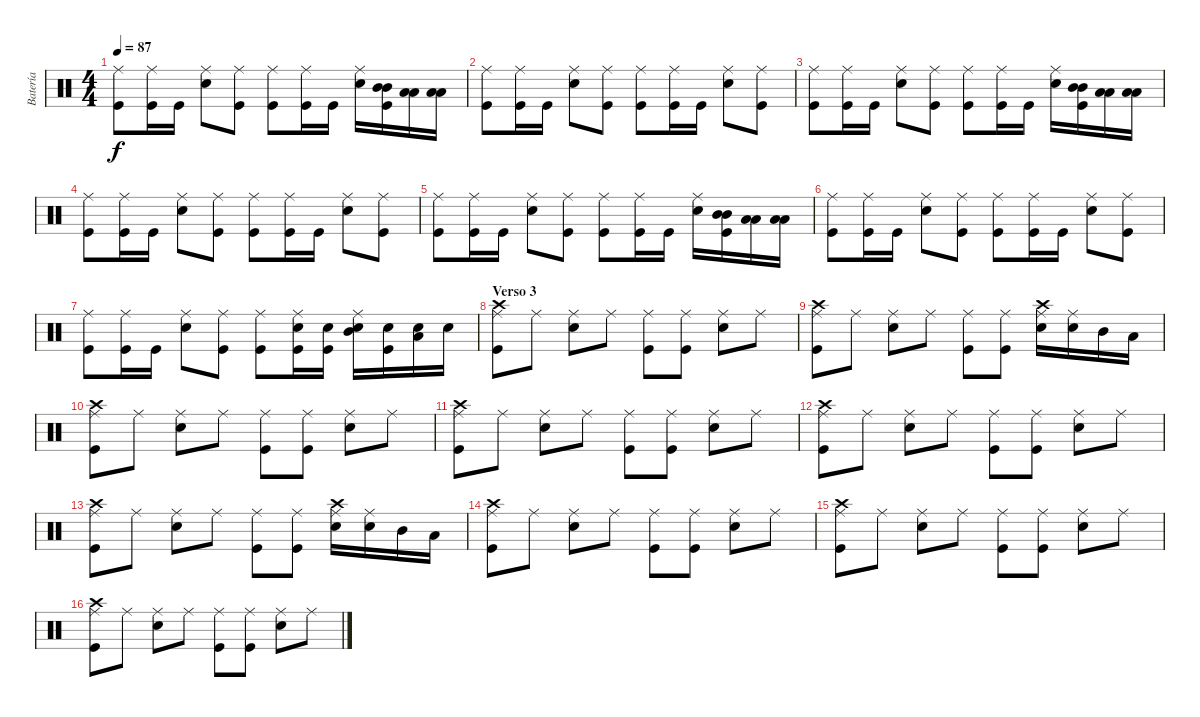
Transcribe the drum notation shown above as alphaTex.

\track ("Batería" "Batería") {instrument percussion}
\staff {score}
\articulation defaults
\ts (4 4)
\tempo 87
\clef neutral
\ks c
("Ride (middle)" "Kick (hit)").8{dy f} ("Ride (middle)" "Kick (hit)").16 "Kick (hit)".16 ("Ride (middle)" "Snare (hit) 2").8 ("Ride (middle)" "Kick (hit)").8 ("Ride (middle)" "Kick (hit)").8 ("Ride (middle)" "Kick (hit)").16 "Kick (hit)".16 ("Ride (middle)" "Snare (hit) 2").16 ("Mid Tom (hit)" "Mid Tom (hit)" "Kick (hit)").16 ("Low Tom (hit)" "Low Tom (hit)").16 ("Low Floor Tom (hit)" "Low Floor Tom (hit)").16 |
("Ride (middle)" "Kick (hit)").8 ("Ride (middle)" "Kick (hit)").16 "Kick (hit)".16 ("Ride (middle)" "Snare (hit) 2").8 ("Ride (middle)" "Kick (hit)").8 ("Ride (middle)" "Kick (hit)").8 ("Ride (middle)" "Kick (hit)").16 "Kick (hit)".16 ("Ride (middle)" "Snare (hit) 2").8 ("Ride (middle)" "Kick (hit)").8 |
("Ride (middle)" "Kick (hit)").8 ("Ride (middle)" "Kick (hit)").16 "Kick (hit)".16 ("Ride (middle)" "Snare (hit) 2").8 ("Ride (middle)" "Kick (hit)").8 ("Ride (middle)" "Kick (hit)").8 ("Ride (middle)" "Kick (hit)").16 "Kick (hit)".16 ("Ride (middle)" "Snare (hit) 2").16 ("Mid Tom (hit)" "Mid Tom (hit)" "Kick (hit)").16 ("Low Tom (hit)" "Low Tom (hit)").16 ("Low Floor Tom (hit)" "Low Floor Tom (hit)").16 |
("Ride (middle)" "Kick (hit)").8 ("Ride (middle)" "Kick (hit)").16 "Kick (hit)".16 ("Ride (middle)" "Snare (hit) 2").8 ("Ride (middle)" "Kick (hit)").8 ("Ride (middle)" "Kick (hit)").8 ("Ride (middle)" "Kick (hit)").16 "Kick (hit)".16 ("Ride (middle)" "Snare (hit) 2").8 ("Ride (middle)" "Kick (hit)").8 |
("Ride (middle)" "Kick (hit)").8 ("Ride (middle)" "Kick (hit)").16 "Kick (hit)".16 ("Ride (middle)" "Snare (hit) 2").8 ("Ride (middle)" "Kick (hit)").8 ("Ride (middle)" "Kick (hit)").8 ("Ride (middle)" "Kick (hit)").16 "Kick (hit)".16 ("Ride (middle)" "Snare (hit) 2").16 ("Mid Tom (hit)" "Mid Tom (hit)" "Kick (hit)").16 ("Low Tom (hit)" "Low Tom (hit)").16 ("Low Floor Tom (hit)" "Low Floor Tom (hit)").16 |
("Ride (middle)" "Kick (hit)").8 ("Ride (middle)" "Kick (hit)").16 "Kick (hit)".16 ("Ride (middle)" "Snare (hit) 2").8 ("Ride (middle)" "Kick (hit)").8 ("Ride (middle)" "Kick (hit)").8 ("Ride (middle)" "Kick (hit)").16 "Kick (hit)".16 ("Ride (middle)" "Snare (hit) 2").8 ("Ride (middle)" "Kick (hit)").8 |
("Ride (middle)" "Kick (hit)").8 ("Ride (middle)" "Kick (hit)").16 "Kick (hit)".16 ("Ride (middle)" "Snare (hit) 2").8 ("Ride (middle)" "Kick (hit)").8 ("Ride (middle)" "Kick (hit)").8 ("Ride (middle)" "Snare (hit) 2" "Kick (hit)").16 ("Snare (hit) 2" "Kick (hit)").16 ("Mid Tom (hit)" "Ride (middle)" "Snare (hit) 2").16 ("Snare (hit) 2" "Kick (hit)").16 ("Low Floor Tom (hit)" "Snare (hit) 2").16 "Snare (hit) 2".16 |
\section ("" "Verso 3")
("Crash high (hit)" "Ride (middle)" "Kick (hit)").8 "Ride (middle)".8 ("Ride (middle)" "Snare (hit) 2").8 "Ride (middle)".8 ("Ride (middle)" "Kick (hit)").8 ("Ride (middle)" "Kick (hit)").8 ("Ride (middle)" "Snare (hit) 2").8 "Ride (middle)".8 |
("Crash high (hit)" "Ride (middle)" "Kick (hit)").8 "Ride (middle)".8 ("Ride (middle)" "Snare (hit) 2").8 "Ride (middle)".8 ("Ride (middle)" "Kick (hit)").8 ("Ride (middle)" "Kick (hit)").8 ("Crash high (hit)" "Ride (middle)" "Snare (hit) 2").16 ("Ride (middle)" "Snare (hit) 2").16 "Mid Tom (hit)".16 "Low Tom (hit)".16 |
("Crash high (hit)" "Ride (middle)" "Kick (hit)").8 "Ride (middle)".8 ("Ride (middle)" "Snare (hit) 2").8 "Ride (middle)".8 ("Ride (middle)" "Kick (hit)").8 ("Ride (middle)" "Kick (hit)").8 ("Ride (middle)" "Snare (hit) 2").8 "Ride (middle)".8 |
("Crash high (hit)" "Ride (middle)" "Kick (hit)").8 "Ride (middle)".8 ("Ride (middle)" "Snare (hit) 2").8 "Ride (middle)".8 ("Ride (middle)" "Kick (hit)").8 ("Ride (middle)" "Kick (hit)").8 ("Ride (middle)" "Snare (hit) 2").8 "Ride (middle)".8 |
("Crash high (hit)" "Ride (middle)" "Kick (hit)").8 "Ride (middle)".8 ("Ride (middle)" "Snare (hit) 2").8 "Ride (middle)".8 ("Ride (middle)" "Kick (hit)").8 ("Ride (middle)" "Kick (hit)").8 ("Ride (middle)" "Snare (hit) 2").8 "Ride (middle)".8 |
("Crash high (hit)" "Ride (middle)" "Kick (hit)").8 "Ride (middle)".8 ("Ride (middle)" "Snare (hit) 2").8 "Ride (middle)".8 ("Ride (middle)" "Kick (hit)").8 ("Ride (middle)" "Kick (hit)").8 ("Crash high (hit)" "Ride (middle)" "Snare (hit) 2").16 ("Ride (middle)" "Snare (hit) 2").16 "Mid Tom (hit)".16 "Low Tom (hit)".16 |
("Crash high (hit)" "Ride (middle)" "Kick (hit)").8 "Ride (middle)".8 ("Ride (middle)" "Snare (hit) 2").8 "Ride (middle)".8 ("Ride (middle)" "Kick (hit)").8 ("Ride (middle)" "Kick (hit)").8 ("Ride (middle)" "Snare (hit) 2").8 "Ride (middle)".8 |
("Crash high (hit)" "Ride (middle)" "Kick (hit)").8 "Ride (middle)".8 ("Ride (middle)" "Snare (hit) 2").8 "Ride (middle)".8 ("Ride (middle)" "Kick (hit)").8 ("Ride (middle)" "Kick (hit)").8 ("Ride (middle)" "Snare (hit) 2").8 "Ride (middle)".8 |
("Crash high (hit)" "Ride (middle)" "Kick (hit)").8 "Ride (middle)".8 ("Ride (middle)" "Snare (hit) 2").8 "Ride (middle)".8 ("Ride (middle)" "Kick (hit)").8 ("Ride (middle)" "Kick (hit)").8 ("Ride (middle)" "Snare (hit) 2").8 "Ride (middle)".8
